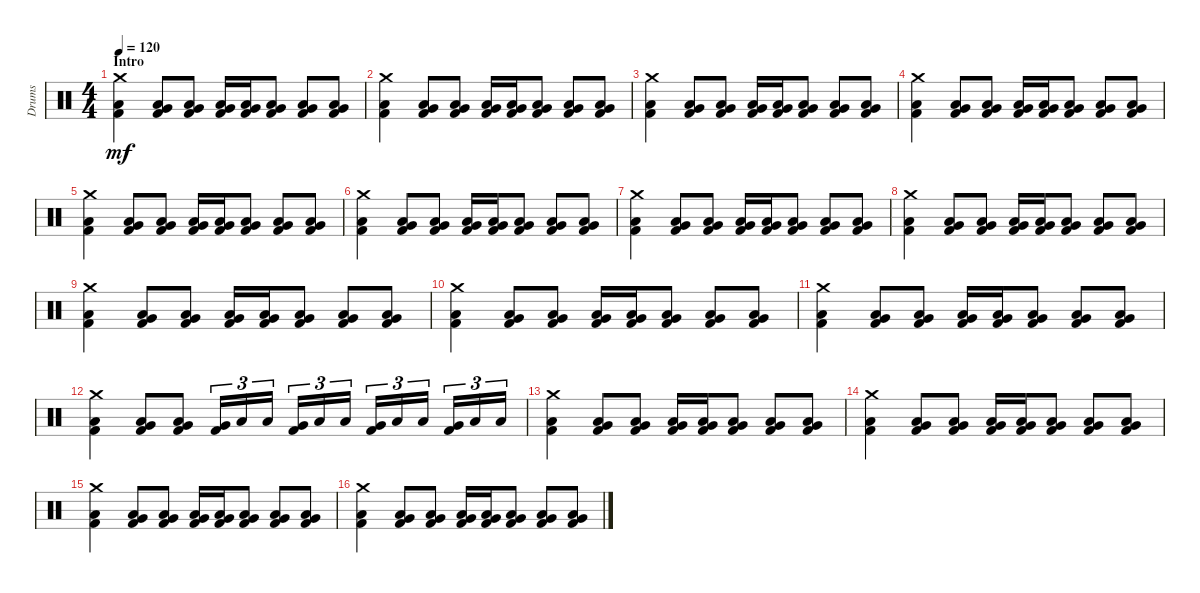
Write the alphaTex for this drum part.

\track ("Drums" "Drums") {instrument percussion}
\staff {score}
\articulation defaults
\ts (4 4)
\section ("" "Intro")
\tempo 120
\clef neutral
\ks c
("Crash medium (hit)" "Low Tom (hit)" "Kick (hit) 2").4{dy mf} ("Very Low Tom (hit)" "Low Floor Tom (hit)" "Kick (hit) 2").8 ("Very Low Tom (hit)" "Low Floor Tom (hit)" "Kick (hit) 2").8 ("Very Low Tom (hit)" "Low Floor Tom (hit)" "Kick (hit) 2").16 ("Very Low Tom (hit)" "Low Floor Tom (hit)" "Kick (hit) 2").16 ("Very Low Tom (hit)" "Low Floor Tom (hit)" "Kick (hit) 2").8 ("Very Low Tom (hit)" "Low Floor Tom (hit)" "Kick (hit) 2").8 ("Very Low Tom (hit)" "Low Floor Tom (hit)" "Kick (hit) 2").8 |
("Crash medium (hit)" "Low Tom (hit)" "Kick (hit) 2").4 ("Very Low Tom (hit)" "Low Floor Tom (hit)" "Kick (hit) 2").8 ("Very Low Tom (hit)" "Low Floor Tom (hit)" "Kick (hit) 2").8 ("Very Low Tom (hit)" "Low Floor Tom (hit)" "Kick (hit) 2").16 ("Very Low Tom (hit)" "Low Floor Tom (hit)" "Kick (hit) 2").16 ("Very Low Tom (hit)" "Low Floor Tom (hit)" "Kick (hit) 2").8 ("Very Low Tom (hit)" "Low Floor Tom (hit)" "Kick (hit) 2").8 ("Very Low Tom (hit)" "Low Floor Tom (hit)" "Kick (hit) 2").8 |
("Crash medium (hit)" "Low Tom (hit)" "Kick (hit) 2").4 ("Very Low Tom (hit)" "Low Floor Tom (hit)" "Kick (hit) 2").8 ("Very Low Tom (hit)" "Low Floor Tom (hit)" "Kick (hit) 2").8 ("Very Low Tom (hit)" "Low Floor Tom (hit)" "Kick (hit) 2").16 ("Very Low Tom (hit)" "Low Floor Tom (hit)" "Kick (hit) 2").16 ("Very Low Tom (hit)" "Low Floor Tom (hit)" "Kick (hit) 2").8 ("Very Low Tom (hit)" "Low Floor Tom (hit)" "Kick (hit) 2").8 ("Very Low Tom (hit)" "Low Floor Tom (hit)" "Kick (hit) 2").8 |
("Crash medium (hit)" "Low Tom (hit)" "Kick (hit) 2").4 ("Very Low Tom (hit)" "Low Floor Tom (hit)" "Kick (hit) 2").8 ("Very Low Tom (hit)" "Low Floor Tom (hit)" "Kick (hit) 2").8 ("Very Low Tom (hit)" "Low Floor Tom (hit)" "Kick (hit) 2").16 ("Very Low Tom (hit)" "Low Floor Tom (hit)" "Kick (hit) 2").16 ("Very Low Tom (hit)" "Low Floor Tom (hit)" "Kick (hit) 2").8 ("Very Low Tom (hit)" "Low Floor Tom (hit)" "Kick (hit) 2").8 ("Very Low Tom (hit)" "Low Floor Tom (hit)" "Kick (hit) 2").8 |
("Crash medium (hit)" "Low Tom (hit)" "Kick (hit) 2").4 ("Very Low Tom (hit)" "Low Floor Tom (hit)" "Kick (hit) 2").8 ("Very Low Tom (hit)" "Low Floor Tom (hit)" "Kick (hit) 2").8 ("Very Low Tom (hit)" "Low Floor Tom (hit)" "Kick (hit) 2").16 ("Very Low Tom (hit)" "Low Floor Tom (hit)" "Kick (hit) 2").16 ("Very Low Tom (hit)" "Low Floor Tom (hit)" "Kick (hit) 2").8 ("Very Low Tom (hit)" "Low Floor Tom (hit)" "Kick (hit) 2").8 ("Very Low Tom (hit)" "Low Floor Tom (hit)" "Kick (hit) 2").8 |
("Crash medium (hit)" "Low Tom (hit)" "Kick (hit) 2").4 ("Very Low Tom (hit)" "Low Floor Tom (hit)" "Kick (hit) 2").8 ("Very Low Tom (hit)" "Low Floor Tom (hit)" "Kick (hit) 2").8 ("Very Low Tom (hit)" "Low Floor Tom (hit)" "Kick (hit) 2").16 ("Very Low Tom (hit)" "Low Floor Tom (hit)" "Kick (hit) 2").16 ("Very Low Tom (hit)" "Low Floor Tom (hit)" "Kick (hit) 2").8 ("Very Low Tom (hit)" "Low Floor Tom (hit)" "Kick (hit) 2").8 ("Very Low Tom (hit)" "Low Floor Tom (hit)" "Kick (hit) 2").8 |
("Crash medium (hit)" "Low Tom (hit)" "Kick (hit) 2").4 ("Very Low Tom (hit)" "Low Floor Tom (hit)" "Kick (hit) 2").8 ("Very Low Tom (hit)" "Low Floor Tom (hit)" "Kick (hit) 2").8 ("Very Low Tom (hit)" "Low Floor Tom (hit)" "Kick (hit) 2").16 ("Very Low Tom (hit)" "Low Floor Tom (hit)" "Kick (hit) 2").16 ("Very Low Tom (hit)" "Low Floor Tom (hit)" "Kick (hit) 2").8 ("Very Low Tom (hit)" "Low Floor Tom (hit)" "Kick (hit) 2").8 ("Very Low Tom (hit)" "Low Floor Tom (hit)" "Kick (hit) 2").8 |
("Crash medium (hit)" "Low Tom (hit)" "Kick (hit) 2").4 ("Very Low Tom (hit)" "Low Floor Tom (hit)" "Kick (hit) 2").8 ("Very Low Tom (hit)" "Low Floor Tom (hit)" "Kick (hit) 2").8 ("Very Low Tom (hit)" "Low Floor Tom (hit)" "Kick (hit) 2").16 ("Very Low Tom (hit)" "Low Floor Tom (hit)" "Kick (hit) 2").16 ("Very Low Tom (hit)" "Low Floor Tom (hit)" "Kick (hit) 2").8 ("Very Low Tom (hit)" "Low Floor Tom (hit)" "Kick (hit) 2").8 ("Very Low Tom (hit)" "Low Floor Tom (hit)" "Kick (hit) 2").8 |
("Crash medium (hit)" "Low Tom (hit)" "Kick (hit) 2").4 ("Very Low Tom (hit)" "Low Floor Tom (hit)" "Kick (hit) 2").8 ("Very Low Tom (hit)" "Low Floor Tom (hit)" "Kick (hit) 2").8 ("Very Low Tom (hit)" "Low Floor Tom (hit)" "Kick (hit) 2").16 ("Very Low Tom (hit)" "Low Floor Tom (hit)" "Kick (hit) 2").16 ("Very Low Tom (hit)" "Low Floor Tom (hit)" "Kick (hit) 2").8 ("Very Low Tom (hit)" "Low Floor Tom (hit)" "Kick (hit) 2").8 ("Very Low Tom (hit)" "Low Floor Tom (hit)" "Kick (hit) 2").8 |
("Crash medium (hit)" "Low Tom (hit)" "Kick (hit) 2").4 ("Very Low Tom (hit)" "Low Floor Tom (hit)" "Kick (hit) 2").8 ("Very Low Tom (hit)" "Low Floor Tom (hit)" "Kick (hit) 2").8 ("Very Low Tom (hit)" "Low Floor Tom (hit)" "Kick (hit) 2").16 ("Very Low Tom (hit)" "Low Floor Tom (hit)" "Kick (hit) 2").16 ("Very Low Tom (hit)" "Low Floor Tom (hit)" "Kick (hit) 2").8 ("Very Low Tom (hit)" "Low Floor Tom (hit)" "Kick (hit) 2").8 ("Very Low Tom (hit)" "Low Floor Tom (hit)" "Kick (hit) 2").8 |
("Crash medium (hit)" "Low Tom (hit)" "Kick (hit) 2").4 ("Very Low Tom (hit)" "Low Floor Tom (hit)" "Kick (hit) 2").8 ("Very Low Tom (hit)" "Low Floor Tom (hit)" "Kick (hit) 2").8 ("Very Low Tom (hit)" "Low Floor Tom (hit)" "Kick (hit) 2").16 ("Very Low Tom (hit)" "Low Floor Tom (hit)" "Kick (hit) 2").16 ("Very Low Tom (hit)" "Low Floor Tom (hit)" "Kick (hit) 2").8 ("Very Low Tom (hit)" "Low Floor Tom (hit)" "Kick (hit) 2").8 ("Very Low Tom (hit)" "Low Floor Tom (hit)" "Kick (hit) 2").8 |
("Crash medium (hit)" "Low Tom (hit)" "Kick (hit) 2").4 ("Very Low Tom (hit)" "Low Floor Tom (hit)" "Kick (hit) 2").8 ("Very Low Tom (hit)" "Low Floor Tom (hit)" "Kick (hit) 2").8 ("Very Low Tom (hit)" "Kick (hit) 2").16{tu (3 2)} "Low Floor Tom (hit)".16{tu (3 2)} "Low Floor Tom (hit)".16{tu (3 2)} ("Very Low Tom (hit)" "Kick (hit) 2").16{tu (3 2)} "Low Floor Tom (hit)".16{tu (3 2)} "Low Floor Tom (hit)".16{tu (3 2)} ("Very Low Tom (hit)" "Kick (hit) 2").16{tu (3 2)} "Low Floor Tom (hit)".16{tu (3 2)} "Low Floor Tom (hit)".16{tu (3 2)} ("Very Low Tom (hit)" "Kick (hit) 2").16{tu (3 2)} "Low Floor Tom (hit)".16{tu (3 2)} "Low Floor Tom (hit)".16{tu (3 2)} |
("Crash medium (hit)" "Low Tom (hit)" "Kick (hit) 2").4 ("Very Low Tom (hit)" "Low Floor Tom (hit)" "Kick (hit) 2").8 ("Very Low Tom (hit)" "Low Floor Tom (hit)" "Kick (hit) 2").8 ("Very Low Tom (hit)" "Low Floor Tom (hit)" "Kick (hit) 2").16 ("Very Low Tom (hit)" "Low Floor Tom (hit)" "Kick (hit) 2").16 ("Very Low Tom (hit)" "Low Floor Tom (hit)" "Kick (hit) 2").8 ("Very Low Tom (hit)" "Low Floor Tom (hit)" "Kick (hit) 2").8 ("Very Low Tom (hit)" "Low Floor Tom (hit)" "Kick (hit) 2").8 |
("Crash medium (hit)" "Low Tom (hit)" "Kick (hit) 2").4 ("Very Low Tom (hit)" "Low Floor Tom (hit)" "Kick (hit) 2").8 ("Very Low Tom (hit)" "Low Floor Tom (hit)" "Kick (hit) 2").8 ("Very Low Tom (hit)" "Low Floor Tom (hit)" "Kick (hit) 2").16 ("Very Low Tom (hit)" "Low Floor Tom (hit)" "Kick (hit) 2").16 ("Very Low Tom (hit)" "Low Floor Tom (hit)" "Kick (hit) 2").8 ("Very Low Tom (hit)" "Low Floor Tom (hit)" "Kick (hit) 2").8 ("Very Low Tom (hit)" "Low Floor Tom (hit)" "Kick (hit) 2").8 |
("Crash medium (hit)" "Low Tom (hit)" "Kick (hit) 2").4 ("Very Low Tom (hit)" "Low Floor Tom (hit)" "Kick (hit) 2").8 ("Very Low Tom (hit)" "Low Floor Tom (hit)" "Kick (hit) 2").8 ("Very Low Tom (hit)" "Low Floor Tom (hit)" "Kick (hit) 2").16 ("Very Low Tom (hit)" "Low Floor Tom (hit)" "Kick (hit) 2").16 ("Very Low Tom (hit)" "Low Floor Tom (hit)" "Kick (hit) 2").8 ("Very Low Tom (hit)" "Low Floor Tom (hit)" "Kick (hit) 2").8 ("Very Low Tom (hit)" "Low Floor Tom (hit)" "Kick (hit) 2").8 |
("Crash medium (hit)" "Low Tom (hit)" "Kick (hit) 2").4 ("Very Low Tom (hit)" "Low Floor Tom (hit)" "Kick (hit) 2").8 ("Very Low Tom (hit)" "Low Floor Tom (hit)" "Kick (hit) 2").8 ("Very Low Tom (hit)" "Low Floor Tom (hit)" "Kick (hit) 2").16 ("Very Low Tom (hit)" "Low Floor Tom (hit)" "Kick (hit) 2").16 ("Very Low Tom (hit)" "Low Floor Tom (hit)" "Kick (hit) 2").8 ("Very Low Tom (hit)" "Low Floor Tom (hit)" "Kick (hit) 2").8 ("Very Low Tom (hit)" "Low Floor Tom (hit)" "Kick (hit) 2").8
